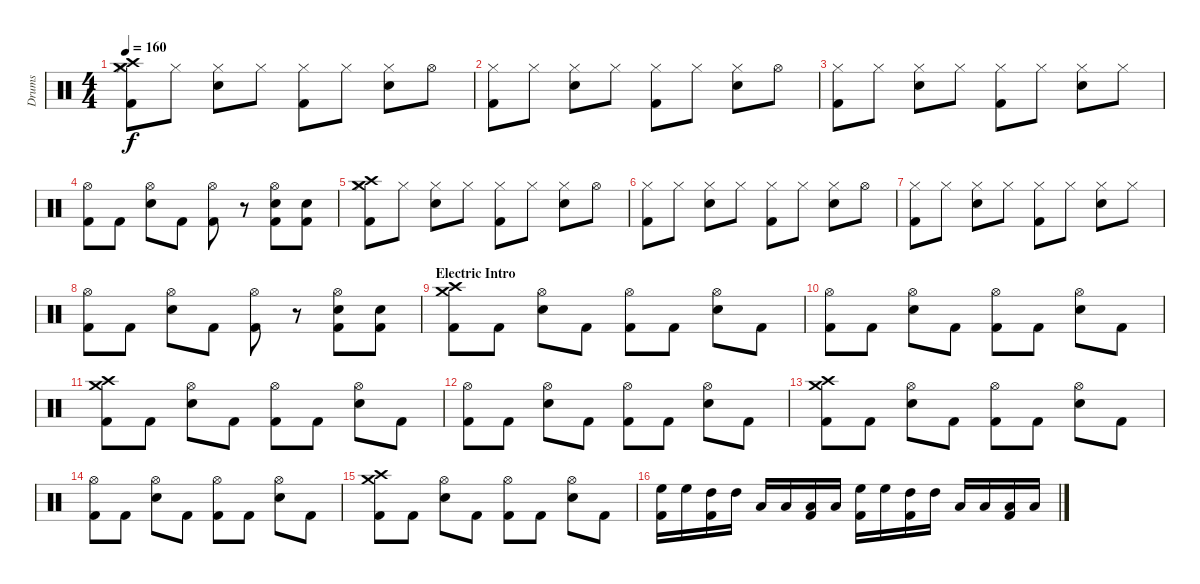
\track ("Drums" "Drums") {instrument percussion}
\staff {score}
\articulation defaults
\ts (4 4)
\tempo 160
\clef neutral
\ks c
("Crash medium (hit)" "Crash high (hit)" "Hi-Hat (closed)" "Kick (hit) 2").8{dy f} "Hi-Hat (closed)".8 ("Hi-Hat (closed)" "Electric Snare (hit)").8 "Hi-Hat (closed)".8 ("Hi-Hat (closed)" "Kick (hit) 2").8 "Hi-Hat (closed)".8 ("Hi-Hat (closed)" "Electric Snare (hit)").8 "Hi-Hat (open)".8 |
("Hi-Hat (closed)" "Kick (hit) 2").8 "Hi-Hat (closed)".8 ("Hi-Hat (closed)" "Electric Snare (hit)").8 "Hi-Hat (closed)".8 ("Hi-Hat (closed)" "Kick (hit) 2").8 "Hi-Hat (closed)".8 ("Hi-Hat (closed)" "Electric Snare (hit)").8 "Hi-Hat (open)".8 |
("Hi-Hat (closed)" "Kick (hit) 2").8 "Hi-Hat (closed)".8 ("Hi-Hat (closed)" "Electric Snare (hit)").8 "Hi-Hat (closed)".8 ("Hi-Hat (closed)" "Kick (hit) 2").8 "Hi-Hat (closed)".8 ("Hi-Hat (closed)" "Electric Snare (hit)").8 "Hi-Hat (closed)".8 |
("Hi-Hat (open)" "Kick (hit) 2").8 "Kick (hit) 2".8 ("Hi-Hat (open)" "Electric Snare (hit)").8 "Kick (hit) 2".8 ("Hi-Hat (open)" "Kick (hit) 2").8 r.8 ("Hi-Hat (open)" "Electric Snare (hit)" "Kick (hit) 2").8 ("Electric Snare (hit)" "Kick (hit) 2").8 |
("Crash medium (hit)" "Crash high (hit)" "Hi-Hat (closed)" "Kick (hit) 2").8 "Hi-Hat (closed)".8 ("Hi-Hat (closed)" "Electric Snare (hit)").8 "Hi-Hat (closed)".8 ("Hi-Hat (closed)" "Kick (hit) 2").8 "Hi-Hat (closed)".8 ("Hi-Hat (closed)" "Electric Snare (hit)").8 "Hi-Hat (open)".8 |
("Hi-Hat (closed)" "Kick (hit) 2").8 "Hi-Hat (closed)".8 ("Hi-Hat (closed)" "Electric Snare (hit)").8 "Hi-Hat (closed)".8 ("Hi-Hat (closed)" "Kick (hit) 2").8 "Hi-Hat (closed)".8 ("Hi-Hat (closed)" "Electric Snare (hit)").8 "Hi-Hat (open)".8 |
("Hi-Hat (closed)" "Kick (hit) 2").8 "Hi-Hat (closed)".8 ("Hi-Hat (closed)" "Electric Snare (hit)").8 "Hi-Hat (closed)".8 ("Hi-Hat (closed)" "Kick (hit) 2").8 "Hi-Hat (closed)".8 ("Hi-Hat (closed)" "Electric Snare (hit)").8 "Hi-Hat (closed)".8 |
("Hi-Hat (open)" "Kick (hit) 2").8 "Kick (hit) 2".8 ("Hi-Hat (open)" "Electric Snare (hit)").8 "Kick (hit) 2".8 ("Hi-Hat (open)" "Kick (hit) 2").8 r.8 ("Hi-Hat (open)" "Electric Snare (hit)" "Kick (hit) 2").8 ("Electric Snare (hit)" "Kick (hit) 2").8 |
\section ("" "Electric Intro")
("Crash medium (hit)" "Crash high (hit)" "Kick (hit) 2").8{volume 16} "Kick (hit) 2".8 ("Hi-Hat (open)" "Electric Snare (hit)").8 "Kick (hit) 2".8 ("Hi-Hat (open)" "Kick (hit) 2").8 "Kick (hit) 2".8 ("Hi-Hat (open)" "Electric Snare (hit)").8 "Kick (hit) 2".8 |
("Hi-Hat (open)" "Kick (hit) 2").8 "Kick (hit) 2".8 ("Hi-Hat (open)" "Electric Snare (hit)").8 "Kick (hit) 2".8 ("Hi-Hat (open)" "Kick (hit) 2").8 "Kick (hit) 2".8 ("Hi-Hat (open)" "Electric Snare (hit)").8 "Kick (hit) 2".8 |
("Crash medium (hit)" "Crash high (hit)" "Kick (hit) 2").8 "Kick (hit) 2".8 ("Hi-Hat (open)" "Electric Snare (hit)").8 "Kick (hit) 2".8 ("Hi-Hat (open)" "Kick (hit) 2").8 "Kick (hit) 2".8 ("Hi-Hat (open)" "Electric Snare (hit)").8 "Kick (hit) 2".8 |
("Hi-Hat (open)" "Kick (hit) 2").8 "Kick (hit) 2".8 ("Hi-Hat (open)" "Electric Snare (hit)").8 "Kick (hit) 2".8 ("Hi-Hat (open)" "Kick (hit) 2").8 "Kick (hit) 2".8 ("Hi-Hat (open)" "Electric Snare (hit)").8 "Kick (hit) 2".8 |
("Crash medium (hit)" "Crash high (hit)" "Kick (hit) 2").8 "Kick (hit) 2".8 ("Hi-Hat (open)" "Electric Snare (hit)").8 "Kick (hit) 2".8 ("Hi-Hat (open)" "Kick (hit) 2").8 "Kick (hit) 2".8 ("Hi-Hat (open)" "Electric Snare (hit)").8 "Kick (hit) 2".8 |
("Hi-Hat (open)" "Kick (hit) 2").8 "Kick (hit) 2".8 ("Hi-Hat (open)" "Electric Snare (hit)").8 "Kick (hit) 2".8 ("Hi-Hat (open)" "Kick (hit) 2").8 "Kick (hit) 2".8 ("Hi-Hat (open)" "Electric Snare (hit)").8 "Kick (hit) 2".8 |
("Crash medium (hit)" "Crash high (hit)" "Kick (hit) 2").8 "Kick (hit) 2".8 ("Hi-Hat (open)" "Electric Snare (hit)").8 "Kick (hit) 2".8 ("Hi-Hat (open)" "Kick (hit) 2").8 "Kick (hit) 2".8 ("Hi-Hat (open)" "Electric Snare (hit)").8 "Kick (hit) 2".8 |
("High Floor Tom (hit)" "Kick (hit) 2").16 "High Floor Tom (hit)".16 ("High Tom (hit)" "Kick (hit) 2").16 "High Tom (hit)".16 "Low Tom (hit)".16 "Low Tom (hit)".16 ("Low Floor Tom (hit)" "Kick (hit) 2").16 "Low Floor Tom (hit)".16 ("High Floor Tom (hit)" "Kick (hit) 2").16 "High Floor Tom (hit)".16 ("High Tom (hit)" "Kick (hit) 2").16 "High Tom (hit)".16 "Low Tom (hit)".16 "Low Tom (hit)".16 ("Low Floor Tom (hit)" "Kick (hit) 2").16 "Low Floor Tom (hit)".16
